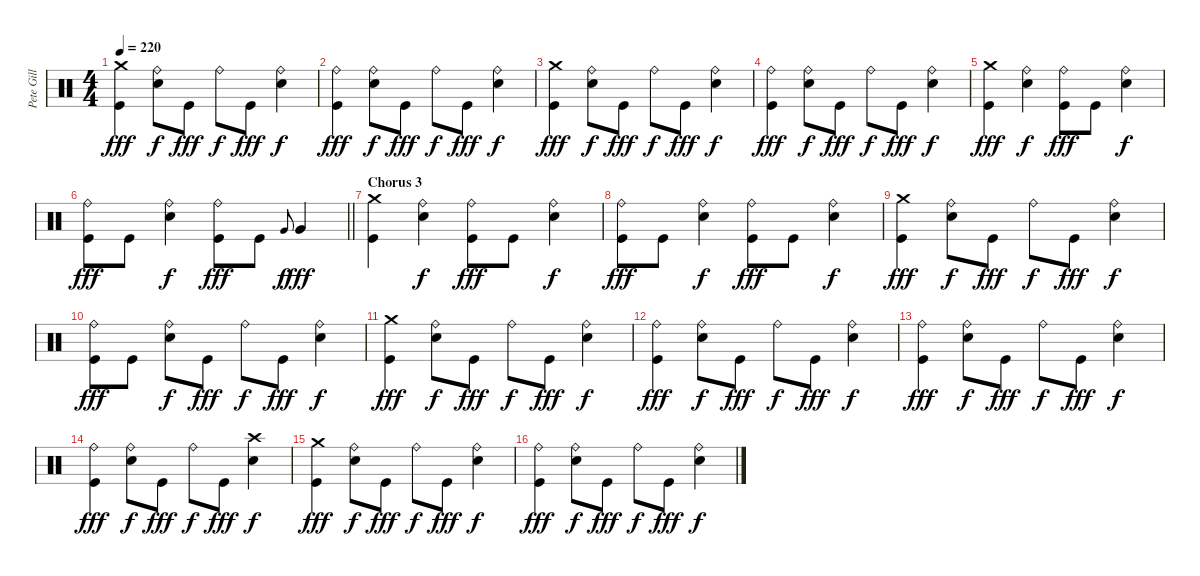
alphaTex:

\track ("Pete Gill" "Pete Gill") {instrument percussion}
\staff {score}
\articulation defaults
\ts (4 4)
\tempo 220
\clef neutral
\ks c
("Crash medium (hit)" "Kick (hit)").4{dy fff} ("Ride (bell)" "Electric Snare (hit)").8{dy f} "Kick (hit)".8{dy fff} "Ride (bell)".8{dy f} "Kick (hit)".8{dy fff} ("Ride (bell)" "Electric Snare (hit)").4{dy f} |
("Ride (bell)" "Kick (hit)").4{dy fff} ("Ride (bell)" "Electric Snare (hit)").8{dy f} "Kick (hit)".8{dy fff} "Ride (bell)".8{dy f} "Kick (hit)".8{dy fff} ("Ride (bell)" "Electric Snare (hit)").4{dy f} |
("Crash medium (hit)" "Kick (hit)").4{dy fff} ("Ride (bell)" "Electric Snare (hit)").8{dy f} "Kick (hit)".8{dy fff} "Ride (bell)".8{dy f} "Kick (hit)".8{dy fff} ("Ride (bell)" "Electric Snare (hit)").4{dy f} |
("Ride (bell)" "Kick (hit)").4{dy fff} ("Ride (bell)" "Electric Snare (hit)").8{dy f} "Kick (hit)".8{dy fff} "Ride (bell)".8{dy f} "Kick (hit)".8{dy fff} ("Ride (bell)" "Electric Snare (hit)").4{dy f} |
("Crash medium (hit)" "Kick (hit)").4{dy fff} ("Ride (bell)" "Electric Snare (hit)").4{dy f} ("Ride (bell)" "Kick (hit)").8{dy fff} "Kick (hit)".8 ("Ride (bell)" "Electric Snare (hit)").4{dy f} |
\barLineRight lightlight
("Ride (bell)" "Kick (hit)").8{dy fff} "Kick (hit)".8 ("Ride (bell)" "Electric Snare (hit)").4{dy f} ("Ride (bell)" "Kick (hit)").8{dy fff} "Kick (hit)".8 "Very Low Tom (hit)".8{gr onbeat dy f} "Very Low Tom (hit)".4{dy fff} |
\section ("" "Chorus 3")
("Crash medium (hit)" "Kick (hit)").4 ("Ride (bell)" "Electric Snare (hit)").4{dy f} ("Ride (bell)" "Kick (hit)").8{dy fff} "Kick (hit)".8 ("Ride (bell)" "Electric Snare (hit)").4{dy f} |
("Ride (bell)" "Kick (hit)").8{dy fff} "Kick (hit)".8 ("Ride (bell)" "Electric Snare (hit)").4{dy f} ("Ride (bell)" "Kick (hit)").8{dy fff} "Kick (hit)".8 ("Ride (bell)" "Electric Snare (hit)").4{dy f} |
("Crash medium (hit)" "Kick (hit)").4{dy fff} ("Ride (bell)" "Electric Snare (hit)").8{dy f} "Kick (hit)".8{dy fff} "Ride (bell)".8{dy f} "Kick (hit)".8{dy fff} ("Ride (bell)" "Electric Snare (hit)").4{dy f} |
("Ride (bell)" "Kick (hit)").8{dy fff} "Kick (hit)".8 ("Ride (bell)" "Electric Snare (hit)").8{dy f} "Kick (hit)".8{dy fff} "Ride (bell)".8{dy f} "Kick (hit)".8{dy fff} ("Ride (bell)" "Electric Snare (hit)").4{dy f} |
("Crash medium (hit)" "Kick (hit)").4{dy fff} ("Ride (bell)" "Electric Snare (hit)").8{dy f} "Kick (hit)".8{dy fff} "Ride (bell)".8{dy f} "Kick (hit)".8{dy fff} ("Ride (bell)" "Electric Snare (hit)").4{dy f} |
("Ride (bell)" "Kick (hit)").4{dy fff} ("Ride (bell)" "Electric Snare (hit)").8{dy f} "Kick (hit)".8{dy fff} "Ride (bell)".8{dy f} "Kick (hit)".8{dy fff} ("Ride (bell)" "Electric Snare (hit)").4{dy f} |
("Ride (bell)" "Kick (hit)").4{dy fff} ("Ride (bell)" "Electric Snare (hit)").8{dy f} "Kick (hit)".8{dy fff} "Ride (bell)".8{dy f} "Kick (hit)".8{dy fff} ("Ride (bell)" "Electric Snare (hit)").4{dy f} |
("Ride (bell)" "Kick (hit)").4{dy fff} ("Ride (bell)" "Electric Snare (hit)").8{dy f} "Kick (hit)".8{dy fff} "Ride (bell)".8{dy f} "Kick (hit)".8{dy fff} ("Crash high (hit)" "Electric Snare (hit)").4{dy f} |
("Crash medium (hit)" "Kick (hit)").4{dy fff} ("Ride (bell)" "Electric Snare (hit)").8{dy f} "Kick (hit)".8{dy fff} "Ride (bell)".8{dy f} "Kick (hit)".8{dy fff} ("Ride (bell)" "Electric Snare (hit)").4{dy f} |
("Ride (bell)" "Kick (hit)").4{dy fff} ("Ride (bell)" "Electric Snare (hit)").8{dy f} "Kick (hit)".8{dy fff} "Ride (bell)".8{dy f} "Kick (hit)".8{dy fff} ("Ride (bell)" "Electric Snare (hit)").4{dy f}
